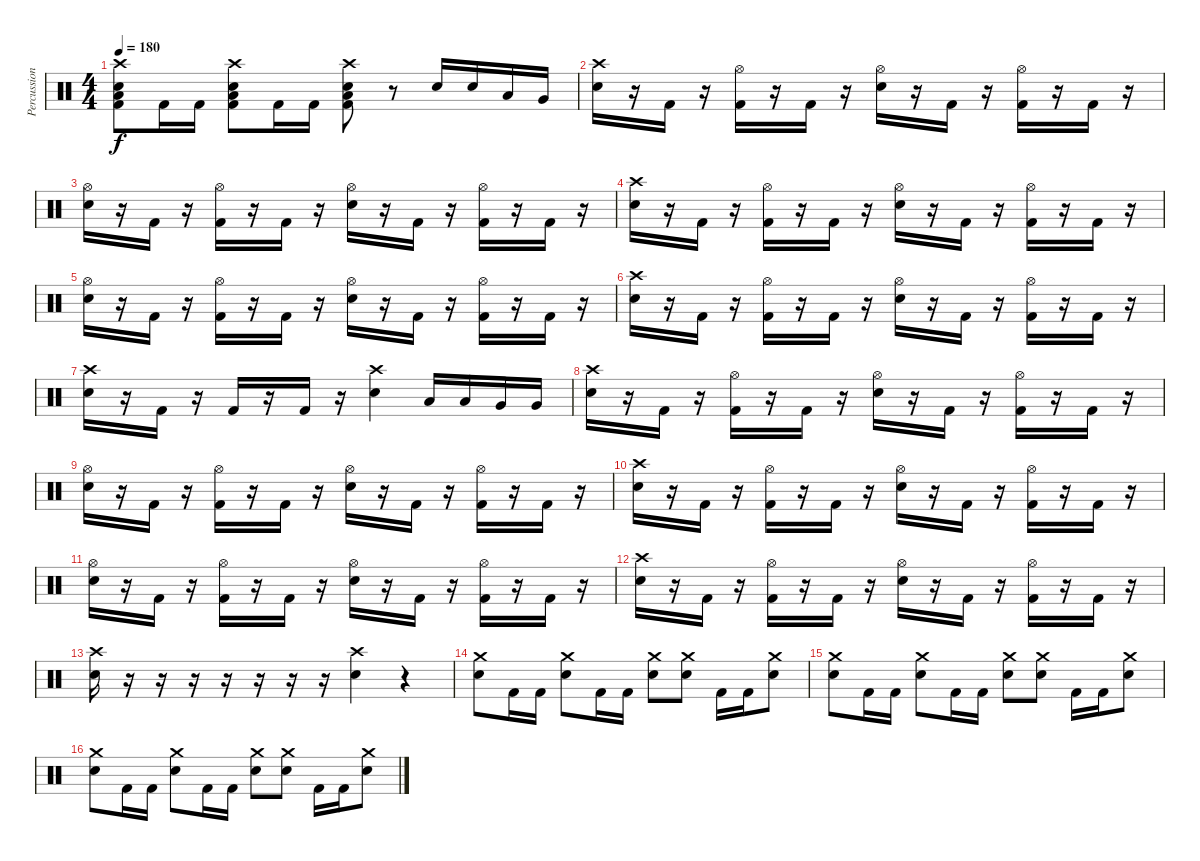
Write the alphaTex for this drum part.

\track ("Percussion" "Percussion") {instrument percussion}
\staff {score}
\articulation defaults
\ts (4 4)
\tempo 180
\clef neutral
\ks c
("Crash high (hit)" "Electric Snare (hit)" "Low Floor Tom (hit)" "Kick (hit) 2").8{dy f} "Kick (hit) 2".16 "Kick (hit) 2".16 ("Crash high (hit)" "Electric Snare (hit)" "Low Floor Tom (hit)" "Kick (hit) 2").8 "Kick (hit) 2".16 "Kick (hit) 2".16 ("Crash high (hit)" "Electric Snare (hit)" "Low Floor Tom (hit)" "Kick (hit) 2").8 r.8 "Electric Snare (hit)".16 "Electric Snare (hit)".16 "Low Tom (hit)".16 "Very Low Tom (hit)".16 |
("Crash high (hit)" "Electric Snare (hit)").16 r.16 "Kick (hit) 2".16 r.16 ("Hi-Hat (open)" "Kick (hit) 2").16 r.16 "Kick (hit) 2".16 r.16 ("Hi-Hat (open)" "Electric Snare (hit)").16 r.16 "Kick (hit) 2".16 r.16 ("Hi-Hat (open)" "Kick (hit) 2").16 r.16 "Kick (hit) 2".16 r.16 |
("Hi-Hat (open)" "Electric Snare (hit)").16 r.16 "Kick (hit) 2".16 r.16 ("Hi-Hat (open)" "Kick (hit) 2").16 r.16 "Kick (hit) 2".16 r.16 ("Hi-Hat (open)" "Electric Snare (hit)").16 r.16 "Kick (hit) 2".16 r.16 ("Hi-Hat (open)" "Kick (hit) 2").16 r.16 "Kick (hit) 2".16 r.16 |
("Crash high (hit)" "Electric Snare (hit)").16 r.16 "Kick (hit) 2".16 r.16 ("Hi-Hat (open)" "Kick (hit) 2").16 r.16 "Kick (hit) 2".16 r.16 ("Hi-Hat (open)" "Electric Snare (hit)").16 r.16 "Kick (hit) 2".16 r.16 ("Hi-Hat (open)" "Kick (hit) 2").16 r.16 "Kick (hit) 2".16 r.16 |
("Hi-Hat (open)" "Electric Snare (hit)").16 r.16 "Kick (hit) 2".16 r.16 ("Hi-Hat (open)" "Kick (hit) 2").16 r.16 "Kick (hit) 2".16 r.16 ("Hi-Hat (open)" "Electric Snare (hit)").16 r.16 "Kick (hit) 2".16 r.16 ("Hi-Hat (open)" "Kick (hit) 2").16 r.16 "Kick (hit) 2".16 r.16 |
("Crash high (hit)" "Electric Snare (hit)").16 r.16 "Kick (hit) 2".16 r.16 ("Hi-Hat (open)" "Kick (hit) 2").16 r.16 "Kick (hit) 2".16 r.16 ("Hi-Hat (open)" "Electric Snare (hit)").16 r.16 "Kick (hit) 2".16 r.16 ("Hi-Hat (open)" "Kick (hit) 2").16 r.16 "Kick (hit) 2".16 r.16 |
("Crash high (hit)" "Electric Snare (hit)").16 r.16 "Kick (hit) 2".16 r.16 "Kick (hit) 2".16 r.16 "Kick (hit) 2".16 r.16 ("Crash high (hit)" "Electric Snare (hit)").4 "Low Tom (hit)".16 "Low Tom (hit)".16 "Very Low Tom (hit)".16 "Very Low Tom (hit)".16 |
("Crash high (hit)" "Electric Snare (hit)").16 r.16 "Kick (hit) 2".16 r.16 ("Hi-Hat (open)" "Kick (hit) 2").16 r.16 "Kick (hit) 2".16 r.16 ("Hi-Hat (open)" "Electric Snare (hit)").16 r.16 "Kick (hit) 2".16 r.16 ("Hi-Hat (open)" "Kick (hit) 2").16 r.16 "Kick (hit) 2".16 r.16 |
("Hi-Hat (open)" "Electric Snare (hit)").16 r.16 "Kick (hit) 2".16 r.16 ("Hi-Hat (open)" "Kick (hit) 2").16 r.16 "Kick (hit) 2".16 r.16 ("Hi-Hat (open)" "Electric Snare (hit)").16 r.16 "Kick (hit) 2".16 r.16 ("Hi-Hat (open)" "Kick (hit) 2").16 r.16 "Kick (hit) 2".16 r.16 |
("Crash high (hit)" "Electric Snare (hit)").16 r.16 "Kick (hit) 2".16 r.16 ("Hi-Hat (open)" "Kick (hit) 2").16 r.16 "Kick (hit) 2".16 r.16 ("Hi-Hat (open)" "Electric Snare (hit)").16 r.16 "Kick (hit) 2".16 r.16 ("Hi-Hat (open)" "Kick (hit) 2").16 r.16 "Kick (hit) 2".16 r.16 |
("Hi-Hat (open)" "Electric Snare (hit)").16 r.16 "Kick (hit) 2".16 r.16 ("Hi-Hat (open)" "Kick (hit) 2").16 r.16 "Kick (hit) 2".16 r.16 ("Hi-Hat (open)" "Electric Snare (hit)").16 r.16 "Kick (hit) 2".16 r.16 ("Hi-Hat (open)" "Kick (hit) 2").16 r.16 "Kick (hit) 2".16 r.16 |
("Crash high (hit)" "Electric Snare (hit)").16 r.16 "Kick (hit) 2".16 r.16 ("Hi-Hat (open)" "Kick (hit) 2").16 r.16 "Kick (hit) 2".16 r.16 ("Hi-Hat (open)" "Electric Snare (hit)").16 r.16 "Kick (hit) 2".16 r.16 ("Hi-Hat (open)" "Kick (hit) 2").16 r.16 "Kick (hit) 2".16 r.16 |
("Crash high (hit)" "Electric Snare (hit)").16 r.16 r.16 r.16 r.16 r.16 r.16 r.16 ("Crash high (hit)" "Electric Snare (hit)").4 r.4 |
("Crash medium (hit)" "Electric Snare (hit)").8 "Kick (hit) 2".16 "Kick (hit) 2".16 ("Crash medium (hit)" "Electric Snare (hit)").8 "Kick (hit) 2".16 "Kick (hit) 2".16 ("Crash medium (hit)" "Electric Snare (hit)").8 ("Crash medium (hit)" "Electric Snare (hit)").8 "Kick (hit) 2".16 "Kick (hit) 2".16 ("Crash medium (hit)" "Electric Snare (hit)").8 |
("Crash medium (hit)" "Electric Snare (hit)").8 "Kick (hit) 2".16 "Kick (hit) 2".16 ("Crash medium (hit)" "Electric Snare (hit)").8 "Kick (hit) 2".16 "Kick (hit) 2".16 ("Crash medium (hit)" "Electric Snare (hit)").8 ("Crash medium (hit)" "Electric Snare (hit)").8 "Kick (hit) 2".16 "Kick (hit) 2".16 ("Crash medium (hit)" "Electric Snare (hit)").8 |
("Crash medium (hit)" "Electric Snare (hit)").8 "Kick (hit) 2".16 "Kick (hit) 2".16 ("Crash medium (hit)" "Electric Snare (hit)").8 "Kick (hit) 2".16 "Kick (hit) 2".16 ("Crash medium (hit)" "Electric Snare (hit)").8 ("Crash medium (hit)" "Electric Snare (hit)").8 "Kick (hit) 2".16 "Kick (hit) 2".16 ("Crash medium (hit)" "Electric Snare (hit)").8
